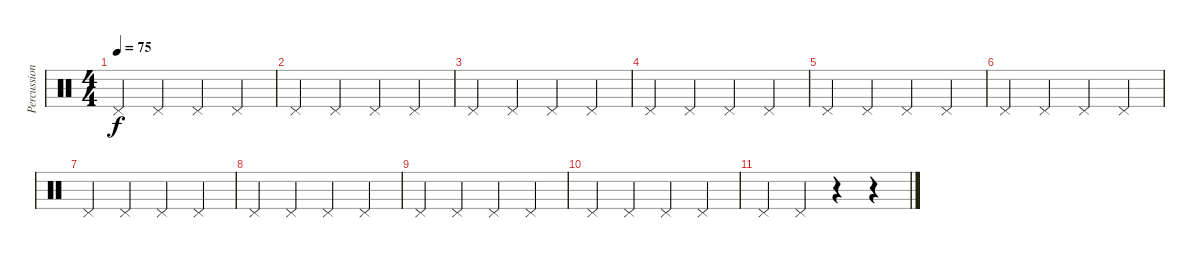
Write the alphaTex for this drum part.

\track ("Percussion" "Percussion") {instrument percussion}
\staff {score}
\articulation defaults
\ts (4 4)
\tempo 75
\clef neutral
\ks c "Pedal Hi-Hat (hit)".4{dy f} "Pedal Hi-Hat (hit)".4 "Pedal Hi-Hat (hit)".4 "Pedal Hi-Hat (hit)".4
|
"Pedal Hi-Hat (hit)".4 "Pedal Hi-Hat (hit)".4 "Pedal Hi-Hat (hit)".4 "Pedal Hi-Hat (hit)".4 |
"Pedal Hi-Hat (hit)".4 "Pedal Hi-Hat (hit)".4 "Pedal Hi-Hat (hit)".4 "Pedal Hi-Hat (hit)".4 |
"Pedal Hi-Hat (hit)".4 "Pedal Hi-Hat (hit)".4 "Pedal Hi-Hat (hit)".4 "Pedal Hi-Hat (hit)".4 |
"Pedal Hi-Hat (hit)".4 "Pedal Hi-Hat (hit)".4 "Pedal Hi-Hat (hit)".4 "Pedal Hi-Hat (hit)".4 |
"Pedal Hi-Hat (hit)".4 "Pedal Hi-Hat (hit)".4 "Pedal Hi-Hat (hit)".4 "Pedal Hi-Hat (hit)".4 |
"Pedal Hi-Hat (hit)".4 "Pedal Hi-Hat (hit)".4 "Pedal Hi-Hat (hit)".4 "Pedal Hi-Hat (hit)".4 |
"Pedal Hi-Hat (hit)".4 "Pedal Hi-Hat (hit)".4 "Pedal Hi-Hat (hit)".4 "Pedal Hi-Hat (hit)".4 |
"Pedal Hi-Hat (hit)".4 "Pedal Hi-Hat (hit)".4 "Pedal Hi-Hat (hit)".4 "Pedal Hi-Hat (hit)".4 |
"Pedal Hi-Hat (hit)".4 "Pedal Hi-Hat (hit)".4 "Pedal Hi-Hat (hit)".4 "Pedal Hi-Hat (hit)".4 |
"Pedal Hi-Hat (hit)".4 "Pedal Hi-Hat (hit)".4 r.4 r.4
